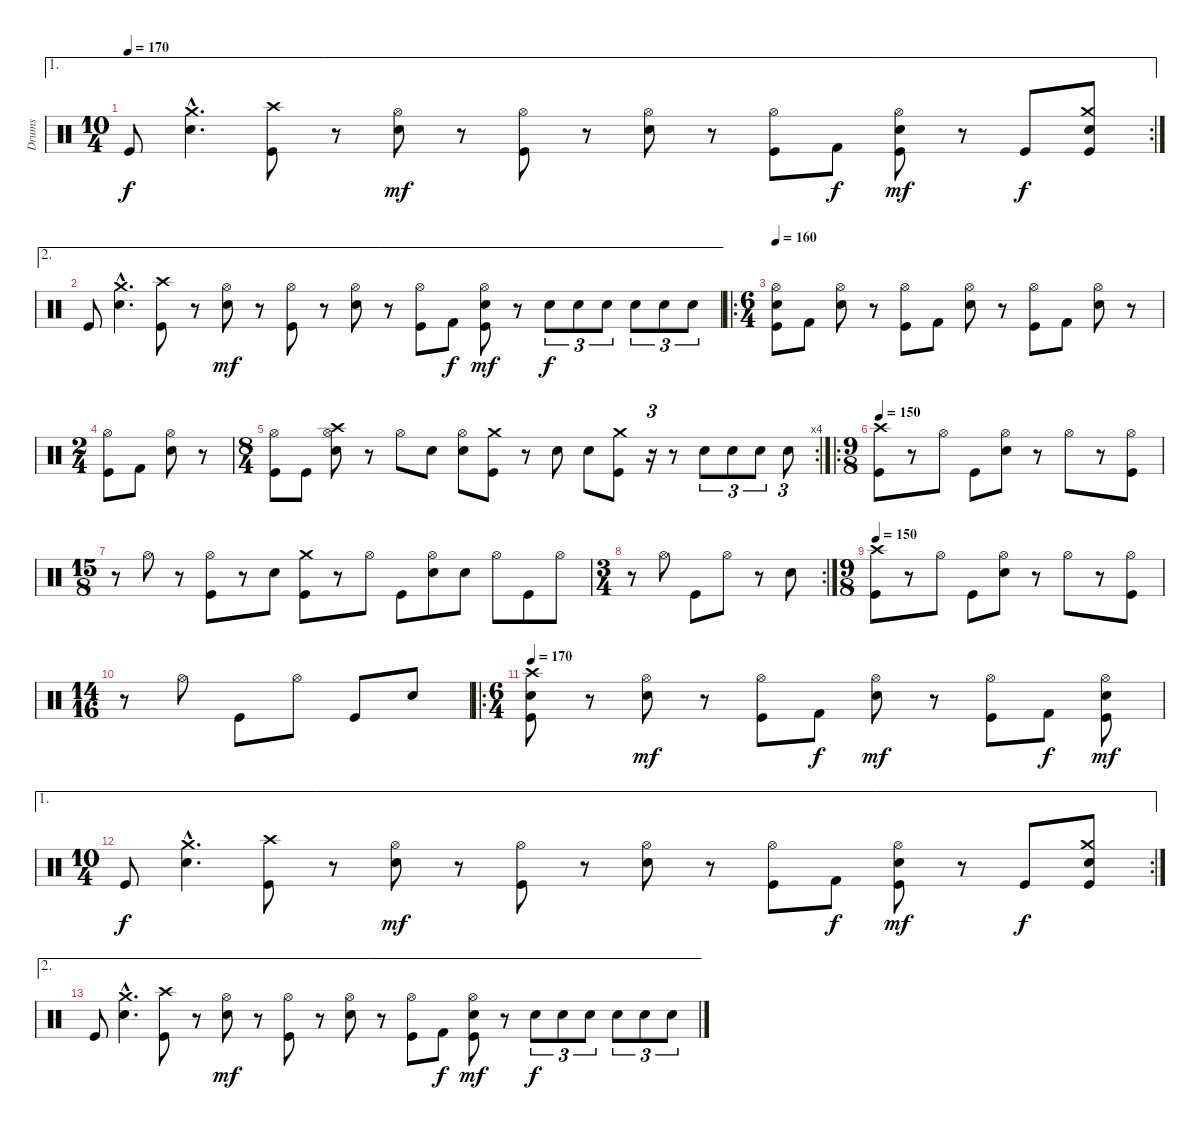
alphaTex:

\track ("Drums" "Drums") {instrument percussion}
\staff {score}
\articulation defaults
\ae 1
\rc 2
\ts (10 4)
\tempo 170
\clef neutral
\ks c "Kick (hit)".8{dy f}
("Crash medium (hit)"{hac} "Snare (hit) 2"{hac}).4{d} ("Crash high (hit)" "Kick (hit)").8 r.8 ("Hi-Hat (open)" "Snare (hit) 2").8{dy mf} r.8 ("Hi-Hat (open)" "Kick (hit)").8 r.8 ("Hi-Hat (open)" "Snare (hit) 2").8 r.8 ("Hi-Hat (open)" "Kick (hit)").8 "Kick (hit) 2".8{dy f} ("Hi-Hat (open)" "Kick (hit)" "Snare (hit) 2").8{dy mf} r.8 "Kick (hit)".8{dy f} ("Crash medium (hit)" "Kick (hit)" "Snare (hit) 2").8 |
\ae 2 "Kick (hit)".8
("Crash medium (hit)"{hac} "Snare (hit) 2"{hac}).4{d} ("Crash high (hit)" "Kick (hit)").8 r.8 ("Hi-Hat (open)" "Snare (hit) 2").8{dy mf} r.8 ("Hi-Hat (open)" "Kick (hit)").8 r.8 ("Hi-Hat (open)" "Snare (hit) 2").8 r.8 ("Hi-Hat (open)" "Kick (hit)").8 "Kick (hit) 2".8{dy f} ("Hi-Hat (open)" "Kick (hit)" "Snare (hit) 2").8{dy mf} r.8 "Snare (hit) 2".8{tu (3 2) dy f} "Snare (hit) 2".8{tu (3 2)} "Snare (hit) 2".8{tu (3 2)} "Snare (hit) 2".8{tu (3 2)} "Snare (hit) 2".8{tu (3 2)} "Snare (hit) 2".8{tu (3 2)} |
\ro
\ts (6 4)
\tempo 160
("Hi-Hat (open)" "Snare (hit) 2" "Kick (hit)").8 "Kick (hit) 2".8 ("Hi-Hat (open)" "Snare (hit) 2").8 r.8 ("Hi-Hat (open)" "Kick (hit)").8 "Kick (hit) 2".8 ("Hi-Hat (open)" "Snare (hit) 2").8 r.8 ("Hi-Hat (open)" "Kick (hit)").8 "Kick (hit) 2".8 ("Hi-Hat (open)" "Snare (hit) 2").8 r.8 |
\ts (2 4)
("Hi-Hat (open)" "Kick (hit)").8 "Kick (hit) 2".8 ("Hi-Hat (open)" "Snare (hit) 2").8 r.8 |
\rc 4
\ts (8 4)
("Hi-Hat (open)" "Kick (hit)").8 "Kick (hit)".8 ("Hi-Hat (open)" "Crash high (hit)" "Snare (hit) 2").8 r.8 "Hi-Hat (open)".8 "Snare (hit) 2".8 ("Hi-Hat (open)" "Snare (hit) 2").8 ("Kick (hit)" "Crash medium (hit)").8 r.8 "Snare (hit) 2".8 "Snare (hit) 2".8 ("Kick (hit)" "Crash medium (hit)").8 r.16{tu (3 2)} r.8 "Snare (hit) 2".8{tu (3 2)} "Snare (hit) 2".8{tu (3 2)} "Snare (hit) 2".8{tu (3 2)} "Snare (hit) 2".8{tu (3 2)} |
\ro
\ts (9 8)
\tempo 150
("Crash high (hit)" "Kick (hit)").8 r.8 "Hi-Hat (open)".8 "Kick (hit)".8 ("Hi-Hat (open)" "Snare (hit) 2").8 r.8 "Hi-Hat (open)".8 r.8 ("Hi-Hat (open)" "Kick (hit)").8 |
\ts (15 8)
r.8 "Hi-Hat (open)".8 r.8 ("Hi-Hat (open)" "Kick (hit)").8 r.8 "Snare (hit) 2".8 ("Crash medium (hit)" "Kick (hit)").8 r.8 "Hi-Hat (open)".8 "Kick (hit)".8 ("Hi-Hat (open)" "Snare (hit) 2").8 "Snare (hit) 2".8 "Hi-Hat (open)".8 "Kick (hit)".8 "Hi-Hat (open)".8 |
\rc 2
\ts (3 4)
r.8 "Hi-Hat (open)".8 "Kick (hit)".8 "Hi-Hat (open)".8 r.8 "Snare (hit) 2".8 |
\ts (9 8)
\tempo 150
("Crash high (hit)" "Kick (hit)").8 r.8 "Hi-Hat (open)".8 "Kick (hit)".8 ("Hi-Hat (open)" "Snare (hit) 2").8 r.8 "Hi-Hat (open)".8 r.8 ("Hi-Hat (open)" "Kick (hit)").8 |
\ts (14 16)
r.8 "Hi-Hat (open)".8 "Kick (hit)".8 "Hi-Hat (open)".8 "Kick (hit)".8 "Snare (hit) 2".8 |
\ro
\ts (6 4)
\tempo 170
("Crash high (hit)" "Snare (hit) 2" "Kick (hit)").8 r.8 ("Hi-Hat (open)" "Snare (hit) 2").8{dy mf} r.8 ("Hi-Hat (open)" "Kick (hit)").8 "Kick (hit) 2".8{dy f} ("Hi-Hat (open)" "Snare (hit) 2").8{dy mf} r.8 ("Hi-Hat (open)" "Kick (hit)").8 "Kick (hit) 2".8{dy f} ("Hi-Hat (open)" "Kick (hit)" "Snare (hit) 2").8{dy mf} |
\ae 1
\rc 2
\ts (10 4)
"Kick (hit)".8{dy f} ("Crash medium (hit)"{hac} "Snare (hit) 2"{hac}).4{d} ("Crash high (hit)" "Kick (hit)").8 r.8 ("Hi-Hat (open)" "Snare (hit) 2").8{dy mf} r.8 ("Hi-Hat (open)" "Kick (hit)").8 r.8 ("Hi-Hat (open)" "Snare (hit) 2").8 r.8 ("Hi-Hat (open)" "Kick (hit)").8 "Kick (hit) 2".8{dy f} ("Hi-Hat (open)" "Kick (hit)" "Snare (hit) 2").8{dy mf} r.8 "Kick (hit)".8{dy f} ("Crash medium (hit)" "Kick (hit)" "Snare (hit) 2").8 |
\ae 2 "Kick (hit)".8
("Crash medium (hit)"{hac} "Snare (hit) 2"{hac}).4{d} ("Crash high (hit)" "Kick (hit)").8 r.8 ("Hi-Hat (open)" "Snare (hit) 2").8{dy mf} r.8 ("Hi-Hat (open)" "Kick (hit)").8 r.8 ("Hi-Hat (open)" "Snare (hit) 2").8 r.8 ("Hi-Hat (open)" "Kick (hit)").8 "Kick (hit) 2".8{dy f} ("Hi-Hat (open)" "Kick (hit)" "Snare (hit) 2").8{dy mf} r.8 "Snare (hit) 2".8{tu (3 2) dy f} "Snare (hit) 2".8{tu (3 2)} "Snare (hit) 2".8{tu (3 2)} "Snare (hit) 2".8{tu (3 2)} "Snare (hit) 2".8{tu (3 2)} "Snare (hit) 2".8{tu (3 2)}
